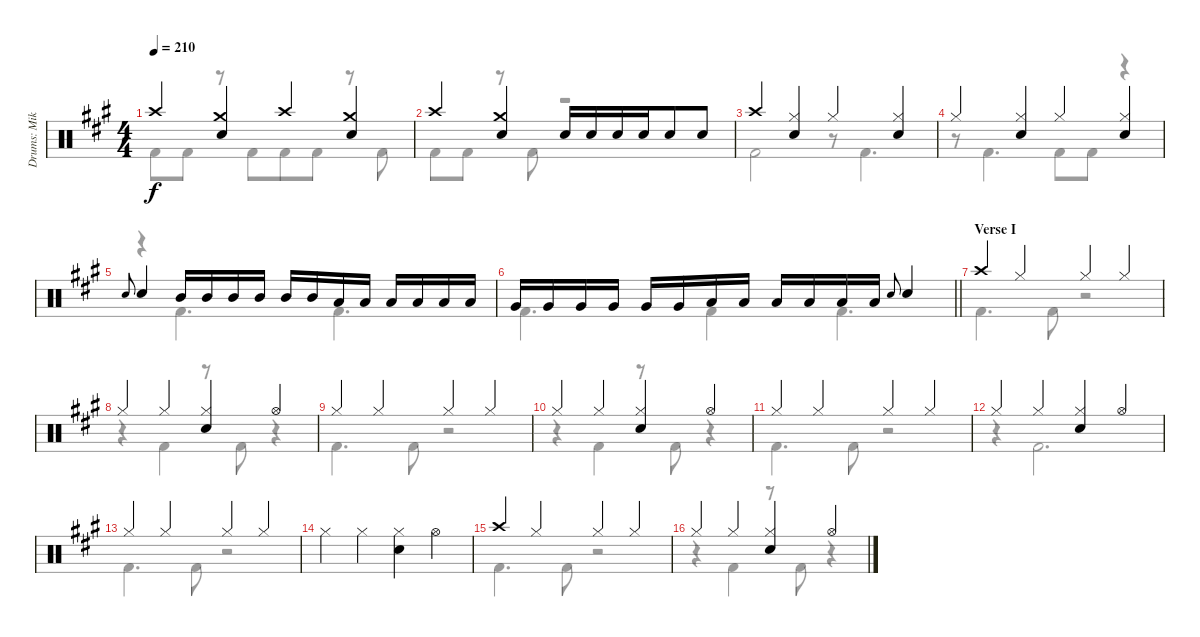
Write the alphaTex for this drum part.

\track ("Drums: Mikkey" "Drums: Mik") {instrument percussion}
\staff {score}
\articulation defaults
\voice
\ts (4 4)
\tempo 210
\clef neutral
\ks a "Crash high (hit)".4{dy f}
("Crash medium (hit)" "Snare (hit) 2").4 "Crash high (hit)".4 ("Crash medium (hit)" "Snare (hit) 2").4 |
"Crash high (hit)".4 ("Crash medium (hit)" "Snare (hit) 2").4 "Snare (hit) 2".16 "Snare (hit) 2".16 "Snare (hit) 2".16 "Snare (hit) 2".16{beam merge} "Snare (hit) 2".8 "Snare (hit) 2".8 |
"Crash high (hit)".4 ("Hi-Hat (closed)" "Snare (hit) 2").4 "Hi-Hat (closed)".4 ("Hi-Hat (closed)" "Snare (hit) 2").4 |
"Hi-Hat (closed)".4 ("Hi-Hat (closed)" "Snare (hit) 2").4 "Hi-Hat (closed)".4 ("Hi-Hat (closed)" "Snare (hit) 2").4 |
"Electric Snare (hit)".8{gr onbeat} "Snare (hit) 2".4 "Mid Tom (hit)".16 "Mid Tom (hit)".16 "Mid Tom (hit)".16 "Mid Tom (hit)".16 "Mid Tom (hit)".16 "Mid Tom (hit)".16 "Low Tom (hit)".16 "Low Tom (hit)".16 "Low Tom (hit)".16 "Low Tom (hit)".16 "Low Tom (hit)".16 "Low Tom (hit)".16 |
\barLineRight lightlight "Very Low Tom (hit)".16 "Very Low Tom (hit)".16 "Very Low Tom (hit)".16 "Very Low Tom (hit)".16 "Very Low Tom (hit)".16 "Very Low Tom (hit)".16 "Low Floor Tom (hit)".16 "Low Floor Tom (hit)".16 "Low Floor Tom (hit)".16 "Low Floor Tom (hit)".16 "Low Floor Tom (hit)".16 "Low Floor Tom (hit)".16 "Electric Snare (hit)".8{gr onbeat} "Snare (hit) 2".4
|
\section ("" "Verse I")
"Crash high (hit)".4 "Hi-Hat (closed)".4 "Hi-Hat (closed)".4 "Hi-Hat (closed)".4 |
"Hi-Hat (closed)".4 "Hi-Hat (closed)".4 ("Hi-Hat (closed)" "Snare (hit) 2").4 "Hi-Hat (open)".4 |
"Hi-Hat (closed)".4 "Hi-Hat (closed)".4 "Hi-Hat (closed)".4 "Hi-Hat (closed)".4 |
"Hi-Hat (closed)".4 "Hi-Hat (closed)".4 ("Hi-Hat (closed)" "Snare (hit) 2").4 "Hi-Hat (open)".4 |
"Hi-Hat (closed)".4 "Hi-Hat (closed)".4 "Hi-Hat (closed)".4 "Hi-Hat (closed)".4 |
"Hi-Hat (closed)".4 "Hi-Hat (closed)".4 ("Hi-Hat (closed)" "Snare (hit) 2").4 "Hi-Hat (open)".4 |
"Hi-Hat (closed)".4 "Hi-Hat (closed)".4 "Hi-Hat (closed)".4 "Hi-Hat (closed)".4 |
"Hi-Hat (closed)".4 "Hi-Hat (closed)".4 ("Hi-Hat (closed)" "Snare (hit) 2").4 "Hi-Hat (open)".4 |
"Crash high (hit)".4 "Hi-Hat (closed)".4 "Hi-Hat (closed)".4 "Hi-Hat (closed)".4 |
"Hi-Hat (closed)".4 "Hi-Hat (closed)".4 ("Hi-Hat (closed)" "Snare (hit) 2").4 "Hi-Hat (open)".4
\voice
\clef neutral
\ottava regular
\simile none
\ks a "Kick (hit) 2".8{dy f} "Kick (hit) 2".8
r.8 "Kick (hit) 2".8{beam merge} "Kick (hit) 2".8 "Kick (hit) 2".8 r.8 "Kick (hit) 2".8 |
"Kick (hit) 2".8 "Kick (hit) 2".8 r.8 "Kick (hit) 2".8 r.2 |
"Kick (hit) 2".2 r.8 "Kick (hit) 2".4{d} |
r.8 "Kick (hit) 2".4{d} "Kick (hit) 2".8 "Kick (hit) 2".8 r.4 |
r.4 "Kick (hit) 2".4{d} "Kick (hit) 2".4{d} |
\barLineRight lightlight "Kick (hit) 2".4{d} "Kick (hit) 2".4 "Kick (hit) 2".4{d}
|
"Kick (hit) 2".4{d} "Kick (hit) 2".8 r.2 |
r.4 "Kick (hit) 2".4 r.8 "Kick (hit) 2".8 r.4 |
"Kick (hit) 2".4{d} "Kick (hit) 2".8 r.2 |
r.4 "Kick (hit) 2".4 r.8 "Kick (hit) 2".8 r.4 |
"Kick (hit) 2".4{d} "Kick (hit) 2".8 r.2 |
r.4 "Kick (hit) 2".2{d} |
"Kick (hit) 2".4{d} "Kick (hit) 2".8 r.2 |
|
"Kick (hit) 2".4{d} "Kick (hit) 2".8 r.2 |
r.4 "Kick (hit) 2".4 r.8 "Kick (hit) 2".8 r.4
